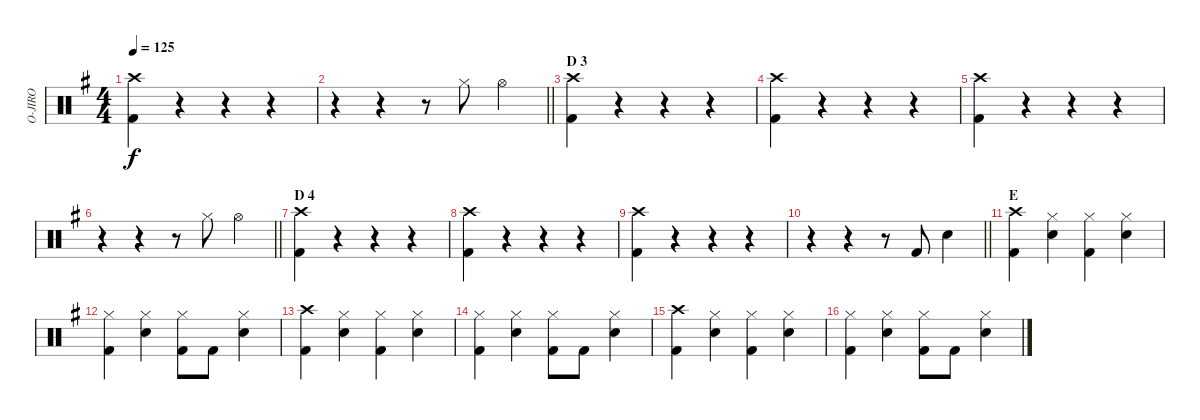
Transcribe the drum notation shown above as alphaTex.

\track ("O-JIRO" "O-JIRO") {instrument percussion}
\staff {score}
\articulation defaults
\ts (4 4)
\tempo 125
\clef neutral
\ks g
("Crash high (hit)" "Kick (hit) 2").4{dy f} r.4 r.4 r.4 |
\barLineRight lightlight
r.4 r.4 r.8 "Hi-Hat (closed)".8 "Hi-Hat (open)".4 |
\section ("" "D 3")
("Crash high (hit)" "Kick (hit) 2").4 r.4 r.4 r.4 |
("Crash high (hit)" "Kick (hit) 2").4 r.4 r.4 r.4 |
("Crash high (hit)" "Kick (hit) 2").4 r.4 r.4 r.4 |
\barLineRight lightlight
r.4 r.4 r.8 "Hi-Hat (closed)".8 "Hi-Hat (open)".4 |
\section ("" "D 4")
("Crash high (hit)" "Kick (hit) 2").4 r.4 r.4 r.4 |
("Crash high (hit)" "Kick (hit) 2").4 r.4 r.4 r.4 |
("Crash high (hit)" "Kick (hit) 2").4 r.4 r.4 r.4 |
\barLineRight lightlight
r.4 r.4 r.8 "Kick (hit) 2".8 "Snare (hit) 2".4 |
\section ("" "E")
("Crash high (hit)" "Kick (hit) 2").4 ("Hi-Hat (closed)" "Snare (hit) 2").4 ("Hi-Hat (closed)" "Kick (hit) 2").4 ("Hi-Hat (closed)" "Snare (hit) 2").4 |
("Hi-Hat (closed)" "Kick (hit) 2").4 ("Hi-Hat (closed)" "Snare (hit) 2").4 ("Hi-Hat (closed)" "Kick (hit) 2").8 "Kick (hit) 2".8 ("Hi-Hat (closed)" "Snare (hit) 2").4 |
("Crash high (hit)" "Kick (hit) 2").4 ("Hi-Hat (closed)" "Snare (hit) 2").4 ("Hi-Hat (closed)" "Kick (hit) 2").4 ("Hi-Hat (closed)" "Snare (hit) 2").4 |
("Hi-Hat (closed)" "Kick (hit) 2").4 ("Hi-Hat (closed)" "Snare (hit) 2").4 ("Hi-Hat (closed)" "Kick (hit) 2").8 "Kick (hit) 2".8 ("Hi-Hat (closed)" "Snare (hit) 2").4 |
("Crash high (hit)" "Kick (hit) 2").4 ("Hi-Hat (closed)" "Snare (hit) 2").4 ("Hi-Hat (closed)" "Kick (hit) 2").4 ("Hi-Hat (closed)" "Snare (hit) 2").4 |
("Hi-Hat (closed)" "Kick (hit) 2").4 ("Hi-Hat (closed)" "Snare (hit) 2").4 ("Hi-Hat (closed)" "Kick (hit) 2").8 "Kick (hit) 2".8 ("Hi-Hat (closed)" "Snare (hit) 2").4
